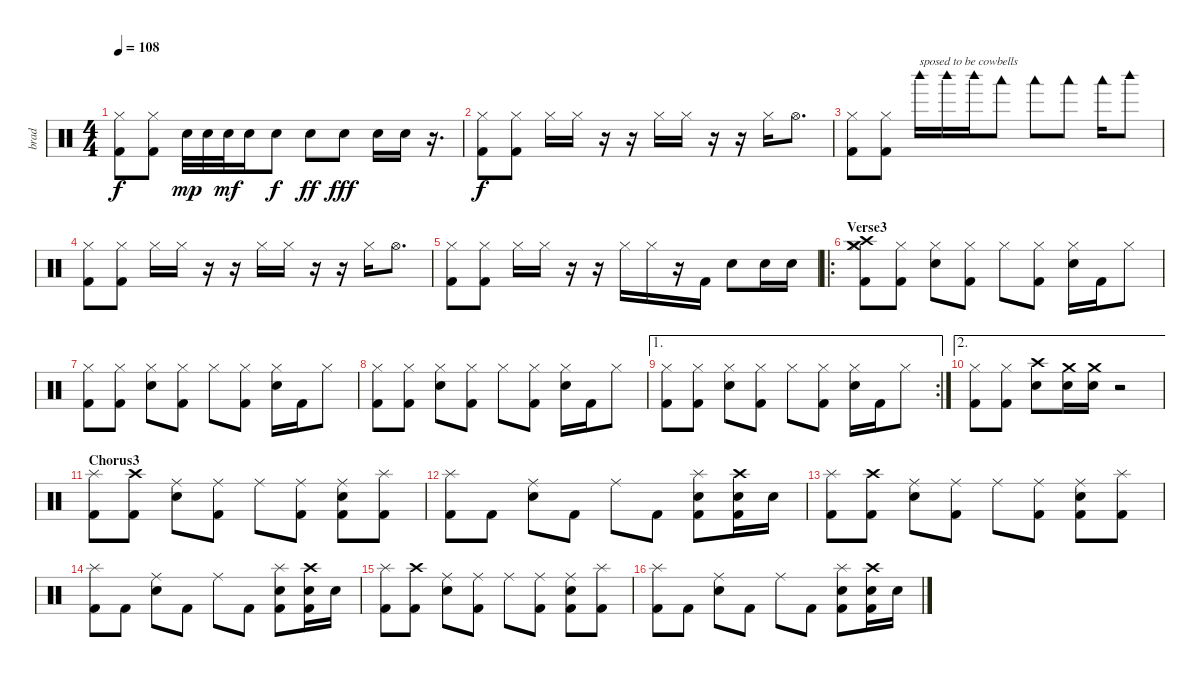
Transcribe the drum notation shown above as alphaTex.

\track ("brad" "brad") {instrument percussion}
\staff {score}
\articulation defaults
\ts (4 4)
\tempo 108
\clef neutral
\ks c
("Hi-Hat (closed)" "Kick (hit) 2").8{dy f} ("Hi-Hat (closed)" "Kick (hit) 2").8 "Electric Snare (hit)".32{dy mp} "Electric Snare (hit)".32 "Electric Snare (hit)".32{dy mf} "Electric Snare (hit)".16 "Electric Snare (hit)".8{dy f} "Electric Snare (hit)".8{dy ff} "Electric Snare (hit)".8{dy fff} "Electric Snare (hit)".16 "Electric Snare (hit)".16 r.16{d} |
("Hi-Hat (closed)" "Kick (hit) 2").8{dy f} ("Hi-Hat (closed)" "Kick (hit) 2").8 "Hi-Hat (closed)".16 "Hi-Hat (closed)".16 r.16 r.16 "Hi-Hat (closed)".16 "Hi-Hat (closed)".16 r.16 r.16 "Hi-Hat (closed)".16 "Hi-Hat (open)".8{d} |
("Hi-Hat (closed)" "Kick (hit) 2").8 ("Hi-Hat (closed)" "Kick (hit) 2").8 "Woodblock high (hit)".16{txt "sposed to be cowbells"} "Woodblock high (hit)".16 "Woodblock high (hit)".16 "Woodblock low (hit)".8 "Woodblock low (hit)".8 "Woodblock low (hit)".8 "Woodblock low (hit)".16 "Woodblock high (hit)".8 |
("Hi-Hat (closed)" "Kick (hit) 2").8 ("Hi-Hat (closed)" "Kick (hit) 2").8 "Hi-Hat (closed)".16 "Hi-Hat (closed)".16 r.16 r.16 "Hi-Hat (closed)".16 "Hi-Hat (closed)".16 r.16 r.16 "Hi-Hat (closed)".16 "Hi-Hat (open)".8{d} |
("Hi-Hat (closed)" "Kick (hit) 2").8 ("Hi-Hat (closed)" "Kick (hit) 2").8 "Hi-Hat (closed)".16 "Hi-Hat (closed)".16 r.16 r.16 "Hi-Hat (closed)".16 "Hi-Hat (closed)".16 r.16 "Kick (hit) 2".16 "Electric Snare (hit)".8 "Electric Snare (hit)".16 "Electric Snare (hit)".16 |
\ro
\section ("" "Verse3")
("Crash medium (hit)" "Crash high (hit)" "Hi-Hat (closed)" "Kick (hit) 2").8 ("Hi-Hat (closed)" "Kick (hit) 2").8 ("Hi-Hat (closed)" "Electric Snare (hit)").8 ("Hi-Hat (closed)" "Kick (hit) 2").8 "Hi-Hat (closed)".8 ("Hi-Hat (closed)" "Kick (hit) 2").8 ("Hi-Hat (closed)" "Electric Snare (hit)").16 "Kick (hit) 2".16 "Hi-Hat (closed)".8 |
("Hi-Hat (closed)" "Kick (hit) 2").8 ("Hi-Hat (closed)" "Kick (hit) 2").8 ("Hi-Hat (closed)" "Electric Snare (hit)").8 ("Hi-Hat (closed)" "Kick (hit) 2").8 "Hi-Hat (closed)".8 ("Hi-Hat (closed)" "Kick (hit) 2").8 ("Hi-Hat (closed)" "Electric Snare (hit)").16 "Kick (hit) 2".16 "Hi-Hat (closed)".8 |
("Hi-Hat (closed)" "Kick (hit) 2").8 ("Hi-Hat (closed)" "Kick (hit) 2").8 ("Hi-Hat (closed)" "Electric Snare (hit)").8 ("Hi-Hat (closed)" "Kick (hit) 2").8 "Hi-Hat (closed)".8 ("Hi-Hat (closed)" "Kick (hit) 2").8 ("Hi-Hat (closed)" "Electric Snare (hit)").16 "Kick (hit) 2".16 "Hi-Hat (closed)".8 |
\ae 1
\rc 2
("Hi-Hat (closed)" "Kick (hit) 2").8 ("Hi-Hat (closed)" "Kick (hit) 2").8 ("Hi-Hat (closed)" "Electric Snare (hit)").8 ("Hi-Hat (closed)" "Kick (hit) 2").8 "Hi-Hat (closed)".8 ("Hi-Hat (closed)" "Kick (hit) 2").8 ("Hi-Hat (closed)" "Electric Snare (hit)").16 "Kick (hit) 2".16 "Hi-Hat (closed)".8 |
\ae 2
("Hi-Hat (closed)" "Kick (hit) 2").8 ("Hi-Hat (closed)" "Kick (hit) 2").8 ("Crash high (hit)" "Electric Snare (hit)").8 ("Crash medium (hit)" "Electric Snare (hit)").16 ("Crash medium (hit)" "Electric Snare (hit)").16 r.2 |
\section ("" "Chorus3")
("Splash (hit)" "Kick (hit) 2").8 ("Crash high (hit)" "Kick (hit) 2").8 ("Ride (middle)" "Electric Snare (hit)").8 ("Ride (middle)" "Kick (hit) 2").8 "Ride (middle)".8 ("Ride (middle)" "Kick (hit) 2").8 ("Ride (middle)" "Electric Snare (hit)" "Kick (hit) 2").8 ("Splash (hit)" "Kick (hit) 2").8 |
("Splash (hit)" "Kick (hit) 2").8 "Kick (hit) 2".8 ("Ride (middle)" "Electric Snare (hit)").8 "Kick (hit) 2".8 "Ride (middle)".8 "Kick (hit) 2".8 ("Splash (hit)" "Electric Snare (hit)" "Kick (hit) 2").8 ("Crash high (hit)" "Electric Snare (hit)" "Kick (hit) 2").16 "Electric Snare (hit)".16 |
("Splash (hit)" "Kick (hit) 2").8 ("Crash high (hit)" "Kick (hit) 2").8 ("Ride (middle)" "Electric Snare (hit)").8 ("Ride (middle)" "Kick (hit) 2").8 "Ride (middle)".8 ("Ride (middle)" "Kick (hit) 2").8 ("Ride (middle)" "Electric Snare (hit)" "Kick (hit) 2").8 ("Splash (hit)" "Kick (hit) 2").8 |
("Splash (hit)" "Kick (hit) 2").8 "Kick (hit) 2".8 ("Ride (middle)" "Electric Snare (hit)").8 "Kick (hit) 2".8 "Ride (middle)".8 "Kick (hit) 2".8 ("Splash (hit)" "Electric Snare (hit)" "Kick (hit) 2").8 ("Crash high (hit)" "Electric Snare (hit)" "Kick (hit) 2").16 "Electric Snare (hit)".16 |
("Splash (hit)" "Kick (hit) 2").8 ("Crash high (hit)" "Kick (hit) 2").8 ("Ride (middle)" "Electric Snare (hit)").8 ("Ride (middle)" "Kick (hit) 2").8 "Ride (middle)".8 ("Ride (middle)" "Kick (hit) 2").8 ("Ride (middle)" "Electric Snare (hit)" "Kick (hit) 2").8 ("Splash (hit)" "Kick (hit) 2").8 |
("Splash (hit)" "Kick (hit) 2").8 "Kick (hit) 2".8 ("Ride (middle)" "Electric Snare (hit)").8 "Kick (hit) 2".8 "Ride (middle)".8 "Kick (hit) 2".8 ("Splash (hit)" "Electric Snare (hit)" "Kick (hit) 2").8 ("Crash high (hit)" "Electric Snare (hit)" "Kick (hit) 2").16 "Electric Snare (hit)".16
